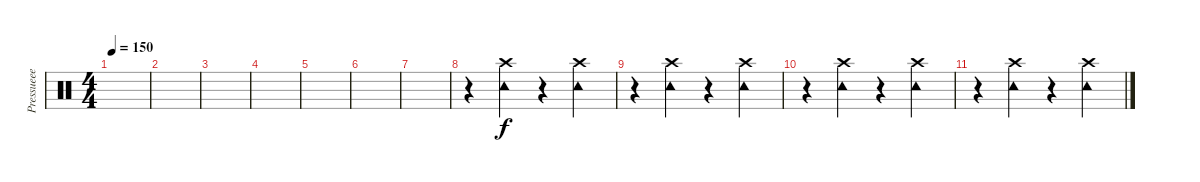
\track ("Pressueee " "Pressueee ") {instrument percussion}
\staff {score}
\articulation defaults
\ts (4 4)
\tempo 150
\clef neutral
\ks c
|
|
|
|
|
|
|
r.4 ("Crash high (hit)" "Tambourine (hit)").4 r.4 ("Crash high (hit)" "Tambourine (hit)").4 |
r.4 ("Crash high (hit)" "Tambourine (hit)").4 r.4 ("Crash high (hit)" "Tambourine (hit)").4 |
r.4 ("Crash high (hit)" "Tambourine (hit)").4 r.4 ("Crash high (hit)" "Tambourine (hit)").4 |
r.4 ("Crash high (hit)" "Tambourine (hit)").4 r.4 ("Crash high (hit)" "Tambourine (hit)").4
